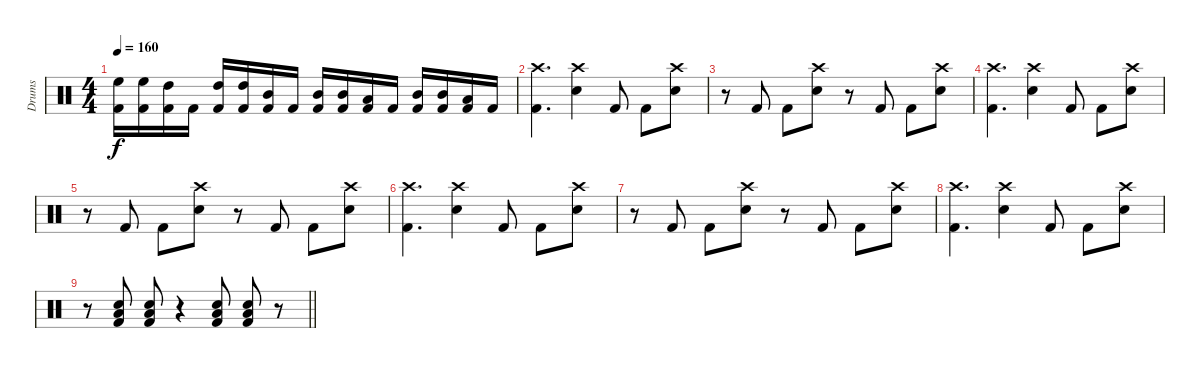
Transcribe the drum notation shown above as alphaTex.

\track ("Drums" "Drums") {instrument percussion}
\staff {score}
\articulation defaults
\ts (4 4)
\tempo 160
\clef neutral
\ks c
("High Floor Tom (hit)" "Kick (hit) 2").16{dy f} ("High Floor Tom (hit)" "Kick (hit) 2").16 ("High Tom (hit)" "Kick (hit) 2").16 "Kick (hit) 2".16 ("High Tom (hit)" "Kick (hit) 2").16 ("High Tom (hit)" "Kick (hit) 2").16 ("Mid Tom (hit)" "Kick (hit) 2").16 "Kick (hit) 2".16 ("Mid Tom (hit)" "Kick (hit) 2").16 ("Mid Tom (hit)" "Kick (hit) 2").16 ("Low Tom (hit)" "Kick (hit) 2").16 "Kick (hit) 2".16 ("Mid Tom (hit)" "Kick (hit) 2").16 ("Mid Tom (hit)" "Kick (hit) 2").16 ("Low Tom (hit)" "Kick (hit) 2").16 "Kick (hit) 2".16 |
("Crash high (hit)" "Kick (hit) 2").4{d} ("Crash high (hit)" "Electric Snare (hit)").4 "Kick (hit) 2".8 "Kick (hit) 2".8 ("Crash high (hit)" "Electric Snare (hit)").8 |
r.8 "Kick (hit) 2".8 "Kick (hit) 2".8 ("Crash high (hit)" "Electric Snare (hit)").8 r.8 "Kick (hit) 2".8 "Kick (hit) 2".8 ("Crash high (hit)" "Electric Snare (hit)").8 |
("Crash high (hit)" "Kick (hit) 2").4{d} ("Crash high (hit)" "Electric Snare (hit)").4 "Kick (hit) 2".8 "Kick (hit) 2".8 ("Crash high (hit)" "Electric Snare (hit)").8 |
r.8 "Kick (hit) 2".8 "Kick (hit) 2".8 ("Crash high (hit)" "Electric Snare (hit)").8 r.8 "Kick (hit) 2".8 "Kick (hit) 2".8 ("Crash high (hit)" "Electric Snare (hit)").8 |
("Crash high (hit)" "Kick (hit) 2").4{d} ("Crash high (hit)" "Electric Snare (hit)").4 "Kick (hit) 2".8 "Kick (hit) 2".8 ("Crash high (hit)" "Electric Snare (hit)").8 |
r.8 "Kick (hit) 2".8 "Kick (hit) 2".8 ("Crash high (hit)" "Electric Snare (hit)").8 r.8 "Kick (hit) 2".8 "Kick (hit) 2".8 ("Crash high (hit)" "Electric Snare (hit)").8 |
("Crash high (hit)" "Kick (hit) 2").4{d} ("Crash high (hit)" "Electric Snare (hit)").4 "Kick (hit) 2".8 "Kick (hit) 2".8 ("Crash high (hit)" "Electric Snare (hit)").8 |
\barLineRight lightlight
r.8 ("Low Tom (hit)" "Electric Snare (hit)" "Kick (hit) 2").8 ("Low Tom (hit)" "Electric Snare (hit)" "Kick (hit) 2").8 r.4 ("Low Tom (hit)" "Electric Snare (hit)" "Kick (hit) 2").8 ("Low Tom (hit)" "Electric Snare (hit)" "Kick (hit) 2").8 r.8
